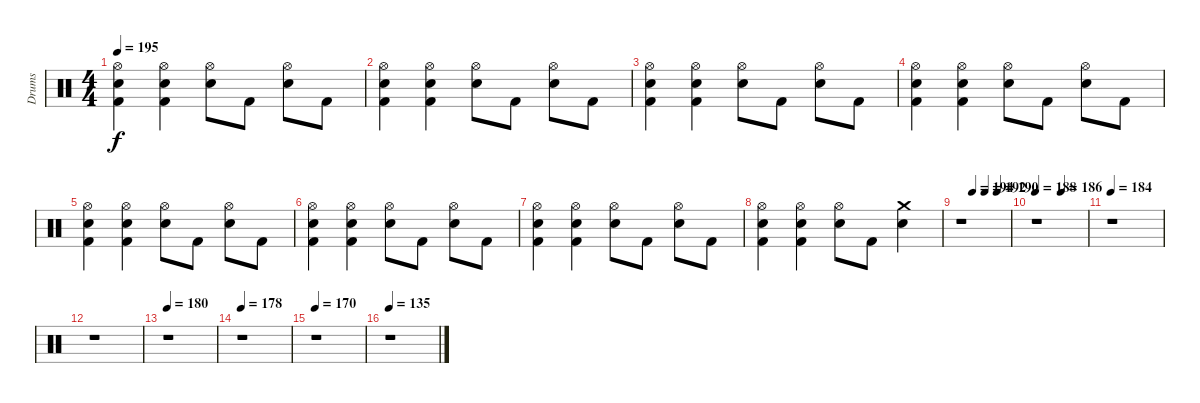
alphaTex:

\track ("Drums" "Drums") {instrument percussion}
\staff {score}
\articulation defaults
\ts (4 4)
\tempo 195
\clef neutral
\ks c
("Hi-Hat (open)" "Electric Snare (hit)" "Kick (hit) 2").4{dy f} ("Hi-Hat (open)" "Electric Snare (hit)" "Kick (hit) 2").4 ("Hi-Hat (open)" "Electric Snare (hit)").8 "Kick (hit) 2".8 ("Hi-Hat (open)" "Electric Snare (hit)").8 "Kick (hit) 2".8 |
("Hi-Hat (open)" "Electric Snare (hit)" "Kick (hit) 2").4 ("Hi-Hat (open)" "Electric Snare (hit)" "Kick (hit) 2").4 ("Hi-Hat (open)" "Electric Snare (hit)").8 "Kick (hit) 2".8 ("Hi-Hat (open)" "Electric Snare (hit)").8 "Kick (hit) 2".8 |
("Hi-Hat (open)" "Electric Snare (hit)" "Kick (hit) 2").4 ("Hi-Hat (open)" "Electric Snare (hit)" "Kick (hit) 2").4 ("Hi-Hat (open)" "Electric Snare (hit)").8 "Kick (hit) 2".8 ("Hi-Hat (open)" "Electric Snare (hit)").8 "Kick (hit) 2".8 |
("Hi-Hat (open)" "Electric Snare (hit)" "Kick (hit) 2").4 ("Hi-Hat (open)" "Electric Snare (hit)" "Kick (hit) 2").4 ("Hi-Hat (open)" "Electric Snare (hit)").8 "Kick (hit) 2".8 ("Hi-Hat (open)" "Electric Snare (hit)").8 "Kick (hit) 2".8 |
("Hi-Hat (open)" "Electric Snare (hit)" "Kick (hit) 2").4 ("Hi-Hat (open)" "Electric Snare (hit)" "Kick (hit) 2").4 ("Hi-Hat (open)" "Electric Snare (hit)").8 "Kick (hit) 2".8 ("Hi-Hat (open)" "Electric Snare (hit)").8 "Kick (hit) 2".8 |
("Hi-Hat (open)" "Electric Snare (hit)" "Kick (hit) 2").4 ("Hi-Hat (open)" "Electric Snare (hit)" "Kick (hit) 2").4 ("Hi-Hat (open)" "Electric Snare (hit)").8 "Kick (hit) 2".8 ("Hi-Hat (open)" "Electric Snare (hit)").8 "Kick (hit) 2".8 |
("Hi-Hat (open)" "Electric Snare (hit)" "Kick (hit) 2").4 ("Hi-Hat (open)" "Electric Snare (hit)" "Kick (hit) 2").4 ("Hi-Hat (open)" "Electric Snare (hit)").8 "Kick (hit) 2".8 ("Hi-Hat (open)" "Electric Snare (hit)").8 "Kick (hit) 2".8 |
("Hi-Hat (open)" "Electric Snare (hit)" "Kick (hit) 2").4 ("Hi-Hat (open)" "Electric Snare (hit)" "Kick (hit) 2").4 ("Hi-Hat (open)" "Electric Snare (hit)").8 "Kick (hit) 2".8 ("Crash medium (hit)" "Electric Snare (hit)").4 |
\tempo (194 0.25)
\tempo (192 0.5)
\tempo (190 0.75)
r.1 |
\tempo 188
\tempo (186 0.5)
r.1 |
\tempo 184
r.1 |
r.1 |
\tempo 180
r.1 |
\tempo 178
r.1 |
\tempo 170
r.1 |
\tempo 135
r.1
